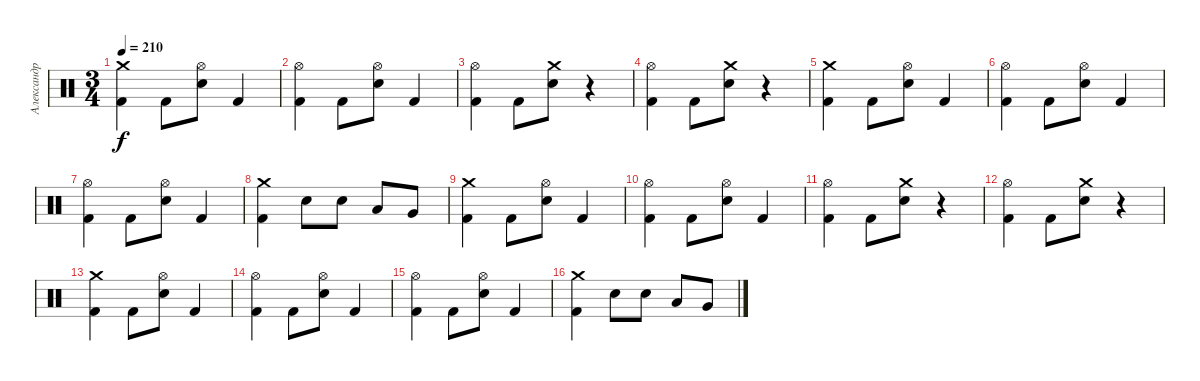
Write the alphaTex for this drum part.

\track ("Александр Манякин" "Александр ") {instrument percussion}
\staff {score}
\articulation defaults
\ts (3 4)
\tempo 210
\clef neutral
\ks c
("Crash medium (hit)" "Kick (hit) 2").4{dy f} "Kick (hit) 2".8 ("Hi-Hat (open)" "Snare (hit) 2").8 "Kick (hit) 2".4 |
("Hi-Hat (open)" "Kick (hit) 2").4 "Kick (hit) 2".8 ("Hi-Hat (open)" "Snare (hit) 2").8 "Kick (hit) 2".4 |
("Hi-Hat (open)" "Kick (hit) 2").4 "Kick (hit) 2".8 ("Crash medium (hit)" "Snare (hit) 2").8 r.4 |
("Hi-Hat (open)" "Kick (hit) 2").4 "Kick (hit) 2".8 ("Crash medium (hit)" "Snare (hit) 2").8 r.4 |
("Crash medium (hit)" "Kick (hit) 2").4 "Kick (hit) 2".8 ("Hi-Hat (open)" "Snare (hit) 2").8 "Kick (hit) 2".4 |
("Hi-Hat (open)" "Kick (hit) 2").4 "Kick (hit) 2".8 ("Hi-Hat (open)" "Snare (hit) 2").8 "Kick (hit) 2".4 |
("Hi-Hat (open)" "Kick (hit) 2").4 "Kick (hit) 2".8 ("Hi-Hat (open)" "Snare (hit) 2").8 "Kick (hit) 2".4 |
("Crash medium (hit)" "Kick (hit) 2").4 "Snare (hit) 2".8 "Snare (hit) 2".8 "Low Tom (hit)".8 "Very Low Tom (hit)".8 |
("Crash medium (hit)" "Kick (hit) 2").4 "Kick (hit) 2".8 ("Hi-Hat (open)" "Snare (hit) 2").8 "Kick (hit) 2".4 |
("Hi-Hat (open)" "Kick (hit) 2").4 "Kick (hit) 2".8 ("Hi-Hat (open)" "Snare (hit) 2").8 "Kick (hit) 2".4 |
("Hi-Hat (open)" "Kick (hit) 2").4 "Kick (hit) 2".8 ("Crash medium (hit)" "Snare (hit) 2").8 r.4 |
("Hi-Hat (open)" "Kick (hit) 2").4 "Kick (hit) 2".8 ("Crash medium (hit)" "Snare (hit) 2").8 r.4 |
("Crash medium (hit)" "Kick (hit) 2").4 "Kick (hit) 2".8 ("Hi-Hat (open)" "Snare (hit) 2").8 "Kick (hit) 2".4 |
("Hi-Hat (open)" "Kick (hit) 2").4 "Kick (hit) 2".8 ("Hi-Hat (open)" "Snare (hit) 2").8 "Kick (hit) 2".4 |
("Hi-Hat (open)" "Kick (hit) 2").4 "Kick (hit) 2".8 ("Hi-Hat (open)" "Snare (hit) 2").8 "Kick (hit) 2".4 |
("Crash medium (hit)" "Kick (hit) 2").4 "Snare (hit) 2".8 "Snare (hit) 2".8 "Low Tom (hit)".8 "Very Low Tom (hit)".8
